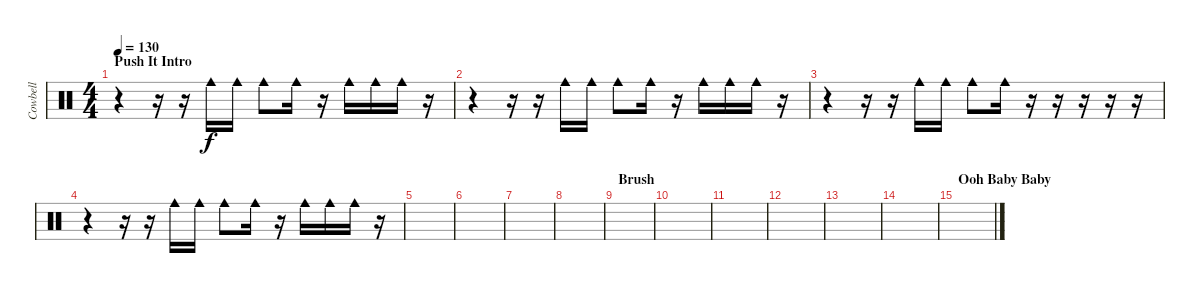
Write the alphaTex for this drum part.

\track ("Cowbell" "Cowbell") {instrument percussion}
\staff {score}
\articulation defaults
\ts (4 4)
\section ("" "Push It Intro")
\tempo 130
\clef neutral
\ks c
r.4{dy f} r.16 r.16 "Cowbell medium (hit)".16 "Cowbell medium (hit)".16 "Cowbell medium (hit)".8 "Cowbell medium (hit)".16 r.16 "Cowbell medium (hit)".16 "Cowbell medium (hit)".16 "Cowbell medium (hit)".16 r.16 |
r.4 r.16 r.16 "Cowbell medium (hit)".16 "Cowbell medium (hit)".16 "Cowbell medium (hit)".8 "Cowbell medium (hit)".16 r.16 "Cowbell medium (hit)".16 "Cowbell medium (hit)".16 "Cowbell medium (hit)".16 r.16 |
r.4 r.16 r.16 "Cowbell medium (hit)".16 "Cowbell medium (hit)".16 "Cowbell medium (hit)".8 "Cowbell medium (hit)".16 r.16 r.16 r.16 r.16 r.16 |
r.4 r.16 r.16 "Cowbell medium (hit)".16 "Cowbell medium (hit)".16 "Cowbell medium (hit)".8 "Cowbell medium (hit)".16 r.16 "Cowbell medium (hit)".16 "Cowbell medium (hit)".16 "Cowbell medium (hit)".16 r.16 |
|
|
|
|
\section ("" "Brush")
|
|
|
|
|
|
\section ("" "Ooh Baby Baby")
